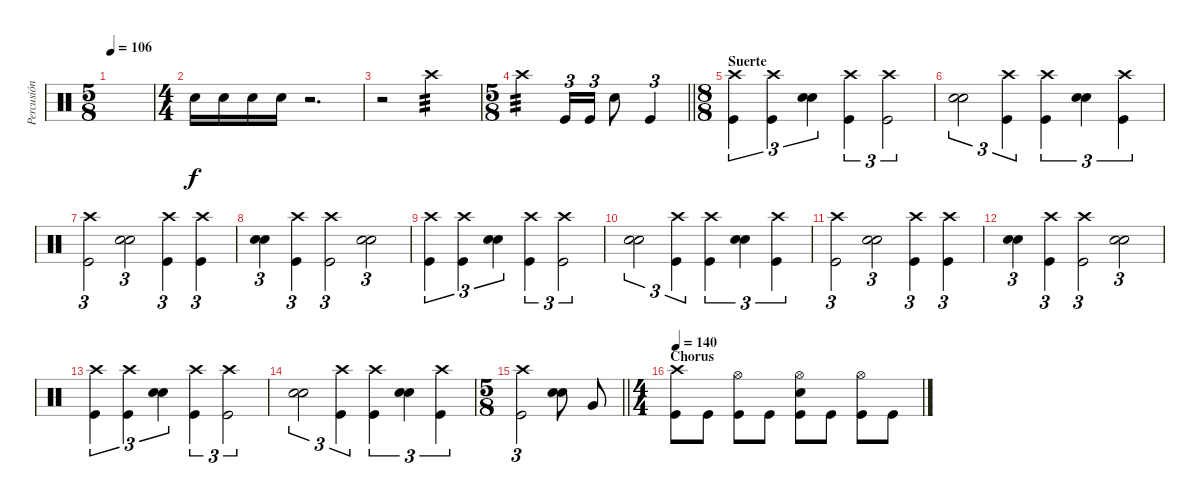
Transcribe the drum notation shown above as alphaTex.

\track ("Percusión" "Percusión") {instrument percussion}
\staff
\articulation defaults
\ts (5 8)
\tempo 106
\clef neutral
\ks c
|
\ts (4 4)
"Electric Snare (hit)".16 "Electric Snare (hit)".16 "Electric Snare (hit)".16 "Electric Snare (hit)".16 r.2{d} |
r.2 "Crash high (hit)".2{tp 3} |
\ts (5 8)
\barLineRight lightlight "Crash high (hit)".4{tp 3} "Kick (hit)".16{tu (3 2)} "Kick (hit)".16{tu (3 2)} "Electric Snare (hit)".8 "Kick (hit)".4{tu (3 2)}
|
\ts (8 8)
\section ("" "Suerte")
("Kick (hit)" "Crash high (hit)").4{tu (3 2)} ("Kick (hit)" "Crash high (hit)").4{tu (3 2)} ("Electric Snare (hit)" "Electric Snare (hit)").4{tu (3 2)} ("Kick (hit)" "Crash high (hit)").4{tu (3 2)} ("Kick (hit)" "Crash high (hit)").2{tu (3 2)} |
("Electric Snare (hit)" "Electric Snare (hit)").2{tu (3 2)} ("Kick (hit)" "Crash high (hit)").4{tu (3 2)} ("Kick (hit)" "Crash high (hit)").4{tu (3 2)} ("Electric Snare (hit)" "Electric Snare (hit)").4{tu (3 2)} ("Kick (hit)" "Crash high (hit)").4{tu (3 2)} |
("Kick (hit)" "Crash high (hit)").2{tu (3 2)} ("Electric Snare (hit)" "Electric Snare (hit)").2{tu (3 2)} ("Kick (hit)" "Crash high (hit)").4{tu (3 2)} ("Kick (hit)" "Crash high (hit)").4{tu (3 2)} |
("Electric Snare (hit)" "Electric Snare (hit)").4{tu (3 2)} ("Kick (hit)" "Crash high (hit)").4{tu (3 2)} ("Kick (hit)" "Crash high (hit)").2{tu (3 2)} ("Electric Snare (hit)" "Electric Snare (hit)").2{tu (3 2)} |
("Kick (hit)" "Crash high (hit)").4{tu (3 2)} ("Kick (hit)" "Crash high (hit)").4{tu (3 2)} ("Electric Snare (hit)" "Electric Snare (hit)").4{tu (3 2)} ("Kick (hit)" "Crash high (hit)").4{tu (3 2)} ("Kick (hit)" "Crash high (hit)").2{tu (3 2)} |
("Electric Snare (hit)" "Electric Snare (hit)").2{tu (3 2)} ("Kick (hit)" "Crash high (hit)").4{tu (3 2)} ("Kick (hit)" "Crash high (hit)").4{tu (3 2)} ("Electric Snare (hit)" "Electric Snare (hit)").4{tu (3 2)} ("Kick (hit)" "Crash high (hit)").4{tu (3 2)} |
("Kick (hit)" "Crash high (hit)").2{tu (3 2)} ("Electric Snare (hit)" "Electric Snare (hit)").2{tu (3 2)} ("Kick (hit)" "Crash high (hit)").4{tu (3 2)} ("Kick (hit)" "Crash high (hit)").4{tu (3 2)} |
("Electric Snare (hit)" "Electric Snare (hit)").4{tu (3 2)} ("Kick (hit)" "Crash high (hit)").4{tu (3 2)} ("Kick (hit)" "Crash high (hit)").2{tu (3 2)} ("Electric Snare (hit)" "Electric Snare (hit)").2{tu (3 2)} |
("Kick (hit)" "Crash high (hit)").4{tu (3 2)} ("Kick (hit)" "Crash high (hit)").4{tu (3 2)} ("Electric Snare (hit)" "Electric Snare (hit)").4{tu (3 2)} ("Kick (hit)" "Crash high (hit)").4{tu (3 2)} ("Kick (hit)" "Crash high (hit)").2{tu (3 2)} |
("Electric Snare (hit)" "Electric Snare (hit)").2{tu (3 2)} ("Kick (hit)" "Crash high (hit)").4{tu (3 2)} ("Kick (hit)" "Crash high (hit)").4{tu (3 2)} ("Electric Snare (hit)" "Electric Snare (hit)").4{tu (3 2)} ("Kick (hit)" "Crash high (hit)").4{tu (3 2)} |
\ts (5 8)
\barLineRight lightlight
("Kick (hit)" "Crash high (hit)").2{tu (3 2)} ("Electric Snare (hit)" "Electric Snare (hit)").8 "Very Low Tom (hit)".8 |
\ts (4 4)
\section ("" "Chorus")
\tempo 140
("Kick (hit)" "Crash high (hit)").8 "Kick (hit)".8 ("Kick (hit)" "Hi-Hat (open)").8 "Kick (hit)".8 ("Kick (hit)" "Hi-Hat (open)" "Electric Snare (hit)").8 "Kick (hit)".8 ("Kick (hit)" "Hi-Hat (open)").8 "Kick (hit)".8
